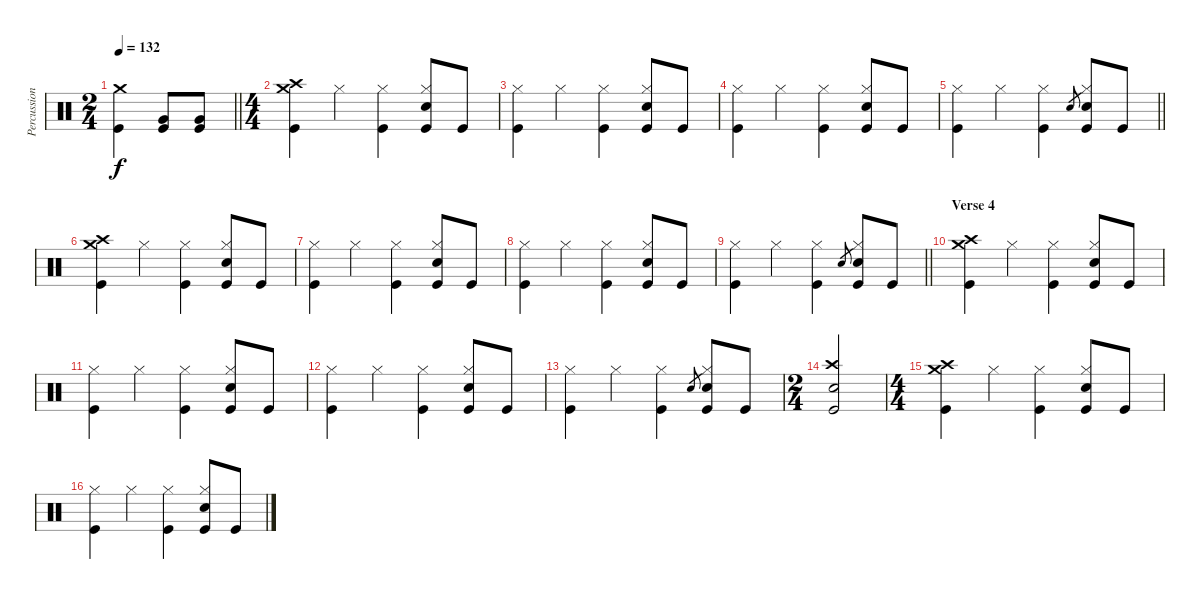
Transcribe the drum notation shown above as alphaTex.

\track ("Percussion" "Percussion") {instrument percussion}
\staff {score}
\articulation defaults
\ts (2 4)
\tempo 132
\clef neutral
\barLineRight lightlight
\ks c
("Crash medium (hit)" "Kick (hit)").4{dy f} ("Very Low Tom (hit)" "Kick (hit)").8 ("Very Low Tom (hit)" "Kick (hit)").8 |
\ts (4 4)
("Crash high (hit)" "Crash medium (hit)" "Kick (hit)").4 "Hi-Hat (closed)".4 ("Hi-Hat (closed)" "Kick (hit)").4 ("Hi-Hat (closed)" "Electric Snare (hit)" "Kick (hit)").8 "Kick (hit)".8 |
("Hi-Hat (closed)" "Kick (hit)").4 "Hi-Hat (closed)".4 ("Hi-Hat (closed)" "Kick (hit)").4 ("Hi-Hat (closed)" "Electric Snare (hit)" "Kick (hit)").8 "Kick (hit)".8 |
("Hi-Hat (closed)" "Kick (hit)").4 "Hi-Hat (closed)".4 ("Hi-Hat (closed)" "Kick (hit)").4 ("Hi-Hat (closed)" "Electric Snare (hit)" "Kick (hit)").8 "Kick (hit)".8 |
\barLineRight lightlight
("Hi-Hat (closed)" "Kick (hit)").4 "Hi-Hat (closed)".4 ("Hi-Hat (closed)" "Kick (hit)").4 "Electric Snare (hit)".8{gr} ("Hi-Hat (closed)" "Electric Snare (hit)" "Kick (hit)").8 "Kick (hit)".8 |
("Crash high (hit)" "Crash medium (hit)" "Kick (hit)").4 "Hi-Hat (closed)".4 ("Hi-Hat (closed)" "Kick (hit)").4 ("Hi-Hat (closed)" "Electric Snare (hit)" "Kick (hit)").8 "Kick (hit)".8 |
("Hi-Hat (closed)" "Kick (hit)").4 "Hi-Hat (closed)".4 ("Hi-Hat (closed)" "Kick (hit)").4 ("Hi-Hat (closed)" "Electric Snare (hit)" "Kick (hit)").8 "Kick (hit)".8 |
("Hi-Hat (closed)" "Kick (hit)").4 "Hi-Hat (closed)".4 ("Hi-Hat (closed)" "Kick (hit)").4 ("Hi-Hat (closed)" "Electric Snare (hit)" "Kick (hit)").8 "Kick (hit)".8 |
\barLineRight lightlight
("Hi-Hat (closed)" "Kick (hit)").4 "Hi-Hat (closed)".4 ("Hi-Hat (closed)" "Kick (hit)").4 "Electric Snare (hit)".8{gr} ("Hi-Hat (closed)" "Electric Snare (hit)" "Kick (hit)").8 "Kick (hit)".8 |
\section ("" "Verse 4")
("Crash high (hit)" "Crash medium (hit)" "Kick (hit)").4 "Hi-Hat (closed)".4 ("Hi-Hat (closed)" "Kick (hit)").4 ("Hi-Hat (closed)" "Electric Snare (hit)" "Kick (hit)").8 "Kick (hit)".8 |
("Hi-Hat (closed)" "Kick (hit)").4 "Hi-Hat (closed)".4 ("Hi-Hat (closed)" "Kick (hit)").4 ("Hi-Hat (closed)" "Electric Snare (hit)" "Kick (hit)").8 "Kick (hit)".8 |
("Hi-Hat (closed)" "Kick (hit)").4 "Hi-Hat (closed)".4 ("Hi-Hat (closed)" "Kick (hit)").4 ("Hi-Hat (closed)" "Electric Snare (hit)" "Kick (hit)").8 "Kick (hit)".8 |
("Hi-Hat (closed)" "Kick (hit)").4 "Hi-Hat (closed)".4 ("Hi-Hat (closed)" "Kick (hit)").4 "Electric Snare (hit)".8{gr} ("Hi-Hat (closed)" "Electric Snare (hit)" "Kick (hit)").8 "Kick (hit)".8 |
\ts (2 4)
("Crash high (hit)" "Electric Snare (hit)" "Kick (hit)").2 |
\ts (4 4)
("Crash high (hit)" "Crash medium (hit)" "Kick (hit)").4 "Hi-Hat (closed)".4 ("Hi-Hat (closed)" "Kick (hit)").4 ("Hi-Hat (closed)" "Electric Snare (hit)" "Kick (hit)").8 "Kick (hit)".8 |
("Hi-Hat (closed)" "Kick (hit)").4 "Hi-Hat (closed)".4 ("Hi-Hat (closed)" "Kick (hit)").4 ("Hi-Hat (closed)" "Electric Snare (hit)" "Kick (hit)").8 "Kick (hit)".8
